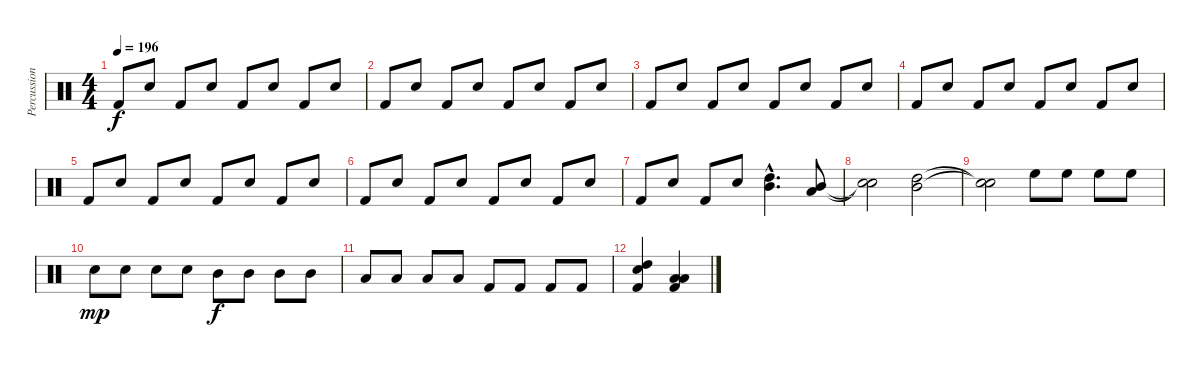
\track ("Percussions" "Percussion") {instrument percussion}
\staff {score}
\articulation defaults
\ts (4 4)
\tempo 196
\clef neutral
\ks c "Kick (hit) 2".8{dy f} "Snare (hit) 2".8 "Kick (hit) 2".8 "Snare (hit) 2".8 "Kick (hit) 2".8 "Snare (hit) 2".8 "Kick (hit) 2".8 "Snare (hit) 2".8
|
"Kick (hit) 2".8 "Snare (hit) 2".8 "Kick (hit) 2".8 "Snare (hit) 2".8 "Kick (hit) 2".8 "Snare (hit) 2".8 "Kick (hit) 2".8 "Snare (hit) 2".8 |
"Kick (hit) 2".8 "Snare (hit) 2".8 "Kick (hit) 2".8 "Snare (hit) 2".8 "Kick (hit) 2".8 "Snare (hit) 2".8 "Kick (hit) 2".8 "Snare (hit) 2".8 |
"Kick (hit) 2".8 "Snare (hit) 2".8 "Kick (hit) 2".8 "Snare (hit) 2".8 "Kick (hit) 2".8 "Snare (hit) 2".8 "Kick (hit) 2".8 "Snare (hit) 2".8 |
"Kick (hit) 2".8 "Snare (hit) 2".8 "Kick (hit) 2".8 "Snare (hit) 2".8 "Kick (hit) 2".8 "Snare (hit) 2".8 "Kick (hit) 2".8 "Snare (hit) 2".8 |
"Kick (hit) 2".8 "Snare (hit) 2".8 "Kick (hit) 2".8 "Snare (hit) 2".8 "Kick (hit) 2".8 "Snare (hit) 2".8 "Kick (hit) 2".8 "Snare (hit) 2".8 |
"Kick (hit) 2".8 "Snare (hit) 2".8 "Kick (hit) 2".8 "Snare (hit) 2".8 ("High Tom (hit)"{hac} "Mid Tom (hit)"{hac}).4{d} ("Mid Tom (hit)" "Low Tom (hit)").8 |
("Snare (hit)"{t} "Snare (hit)"{t}).2 ("High Tom (hit)" "Mid Tom (hit)").2 |
("Snare (hit)"{t} "Snare (hit)"{t}).2 "High Floor Tom (hit)".8 "High Floor Tom (hit)".8 "High Floor Tom (hit)".8 "High Floor Tom (hit)".8 |
"Snare (hit) 2".8{dy mp} "Snare (hit) 2".8 "Snare (hit) 2".8 "Snare (hit) 2".8 "Mid Tom (hit)".8{dy f} "Mid Tom (hit)".8 "Mid Tom (hit)".8 "Mid Tom (hit)".8 |
"Low Tom (hit)".8 "Low Tom (hit)".8 "Low Tom (hit)".8 "Low Tom (hit)".8 "Kick (hit) 2".8 "Kick (hit) 2".8 "Kick (hit) 2".8 "Kick (hit) 2".8 |
("High Tom (hit)" "Snare (hit) 2" "Kick (hit) 2").4 ("Low Tom (hit)" "Low Tom (hit)" "Kick (hit) 2").4
